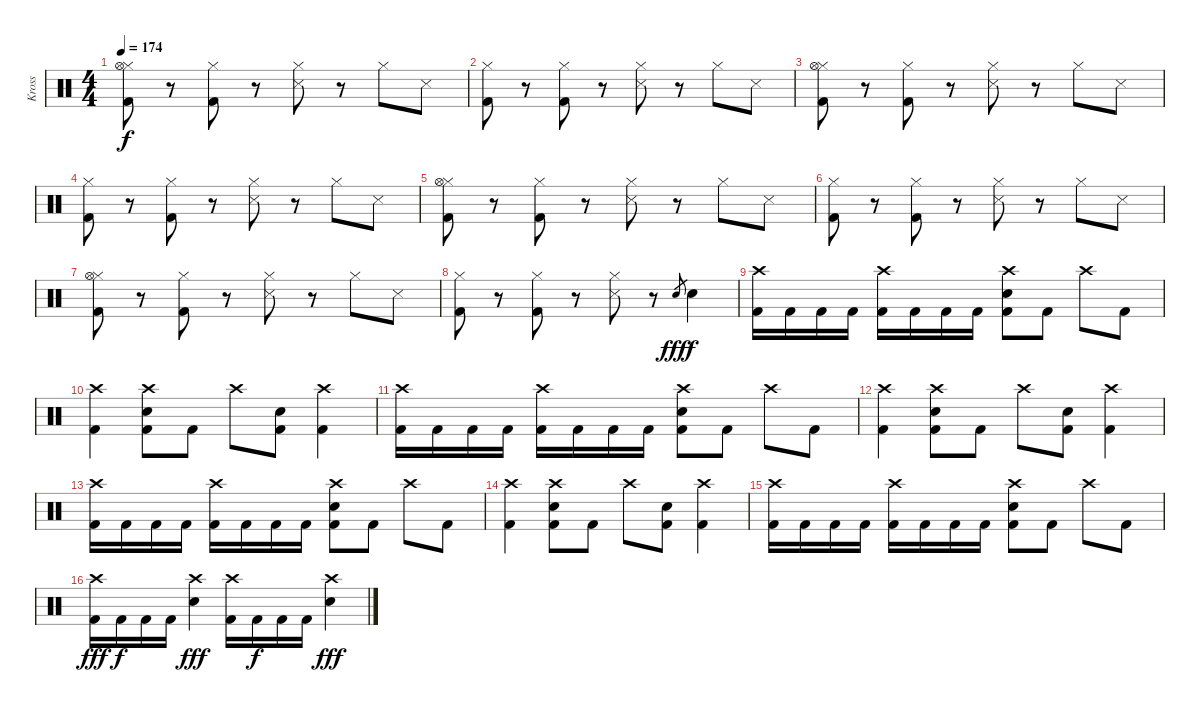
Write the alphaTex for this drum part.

\track ("Kross" "Kross") {instrument percussion}
\staff {score}
\articulation defaults
\ts (4 4)
\tempo 174
\clef neutral
\ks c
("Hi-Hat (closed)" "Hi-Hat (open)" "Kick (hit) 2").8{dy f} r.8 ("Hi-Hat (closed)" "Kick (hit) 2").8 r.8 ("Hi-Hat (closed)" "Snare (side stick) 3").8 r.8 "Hi-Hat (closed)".8 "Snare (side stick) 3".8 |
("Hi-Hat (closed)" "Kick (hit) 2").8 r.8 ("Hi-Hat (closed)" "Kick (hit) 2").8 r.8 ("Hi-Hat (closed)" "Snare (side stick) 3").8 r.8 "Hi-Hat (closed)".8 "Snare (side stick) 3".8 |
("Hi-Hat (closed)" "Hi-Hat (open)" "Kick (hit) 2").8 r.8 ("Hi-Hat (closed)" "Kick (hit) 2").8 r.8 ("Hi-Hat (closed)" "Snare (side stick) 3").8 r.8 "Hi-Hat (closed)".8 "Snare (side stick) 3".8 |
("Hi-Hat (closed)" "Kick (hit) 2").8 r.8 ("Hi-Hat (closed)" "Kick (hit) 2").8 r.8 ("Hi-Hat (closed)" "Snare (side stick) 3").8 r.8 "Hi-Hat (closed)".8 "Snare (side stick) 3".8 |
("Hi-Hat (closed)" "Hi-Hat (open)" "Kick (hit) 2").8 r.8 ("Hi-Hat (closed)" "Kick (hit) 2").8 r.8 ("Hi-Hat (closed)" "Snare (side stick) 3").8 r.8 "Hi-Hat (closed)".8 "Snare (side stick) 3".8 |
("Hi-Hat (closed)" "Kick (hit) 2").8 r.8 ("Hi-Hat (closed)" "Kick (hit) 2").8 r.8 ("Hi-Hat (closed)" "Snare (side stick) 3").8 r.8 "Hi-Hat (closed)".8 "Snare (side stick) 3".8 |
("Hi-Hat (closed)" "Hi-Hat (open)" "Kick (hit) 2").8 r.8 ("Hi-Hat (closed)" "Kick (hit) 2").8 r.8 ("Hi-Hat (closed)" "Snare (side stick) 3").8 r.8 "Hi-Hat (closed)".8 "Snare (side stick) 3".8 |
("Hi-Hat (closed)" "Kick (hit) 2").8 r.8 ("Hi-Hat (closed)" "Kick (hit) 2").8 r.8 ("Hi-Hat (closed)" "Snare (side stick) 3").8 r.8 "Electric Snare (hit)".8{gr dy fff} "Electric Snare (hit)".4{dy f} |
("Crash high (hit)" "Kick (hit) 2").16 "Kick (hit) 2".16 "Kick (hit) 2".16 "Kick (hit) 2".16 ("Crash high (hit)" "Kick (hit) 2").16 "Kick (hit) 2".16 "Kick (hit) 2".16 "Kick (hit) 2".16 ("Crash high (hit)" "Electric Snare (hit)" "Kick (hit) 2").8 "Kick (hit) 2".8 "Crash high (hit)".8 "Kick (hit) 2".8 |
("Crash high (hit)" "Kick (hit) 2").4 ("Crash high (hit)" "Electric Snare (hit)" "Kick (hit) 2").8 "Kick (hit) 2".8 "Crash high (hit)".8 ("Electric Snare (hit)" "Kick (hit) 2").8 ("Crash high (hit)" "Kick (hit) 2").4 |
("Crash high (hit)" "Kick (hit) 2").16 "Kick (hit) 2".16 "Kick (hit) 2".16 "Kick (hit) 2".16 ("Crash high (hit)" "Kick (hit) 2").16 "Kick (hit) 2".16 "Kick (hit) 2".16 "Kick (hit) 2".16 ("Crash high (hit)" "Electric Snare (hit)" "Kick (hit) 2").8 "Kick (hit) 2".8 "Crash high (hit)".8 "Kick (hit) 2".8 |
("Crash high (hit)" "Kick (hit) 2").4 ("Crash high (hit)" "Electric Snare (hit)" "Kick (hit) 2").8 "Kick (hit) 2".8 "Crash high (hit)".8 ("Electric Snare (hit)" "Kick (hit) 2").8 ("Crash high (hit)" "Kick (hit) 2").4 |
("Crash high (hit)" "Kick (hit) 2").16 "Kick (hit) 2".16 "Kick (hit) 2".16 "Kick (hit) 2".16 ("Crash high (hit)" "Kick (hit) 2").16 "Kick (hit) 2".16 "Kick (hit) 2".16 "Kick (hit) 2".16 ("Crash high (hit)" "Electric Snare (hit)" "Kick (hit) 2").8 "Kick (hit) 2".8 "Crash high (hit)".8 "Kick (hit) 2".8 |
("Crash high (hit)" "Kick (hit) 2").4 ("Crash high (hit)" "Electric Snare (hit)" "Kick (hit) 2").8 "Kick (hit) 2".8 "Crash high (hit)".8 ("Electric Snare (hit)" "Kick (hit) 2").8 ("Crash high (hit)" "Kick (hit) 2").4 |
("Crash high (hit)" "Kick (hit) 2").16 "Kick (hit) 2".16 "Kick (hit) 2".16 "Kick (hit) 2".16 ("Crash high (hit)" "Kick (hit) 2").16 "Kick (hit) 2".16 "Kick (hit) 2".16 "Kick (hit) 2".16 ("Crash high (hit)" "Electric Snare (hit)" "Kick (hit) 2").8 "Kick (hit) 2".8 "Crash high (hit)".8 "Kick (hit) 2".8 |
("Crash high (hit)" "Kick (hit) 2").16{dy fff} "Kick (hit) 2".16{dy f} "Kick (hit) 2".16 "Kick (hit) 2".16 ("Crash high (hit)" "Electric Snare (hit)").4{dy fff} ("Crash high (hit)" "Kick (hit) 2").16 "Kick (hit) 2".16{dy f} "Kick (hit) 2".16 "Kick (hit) 2".16 ("Crash high (hit)" "Electric Snare (hit)").4{dy fff}
